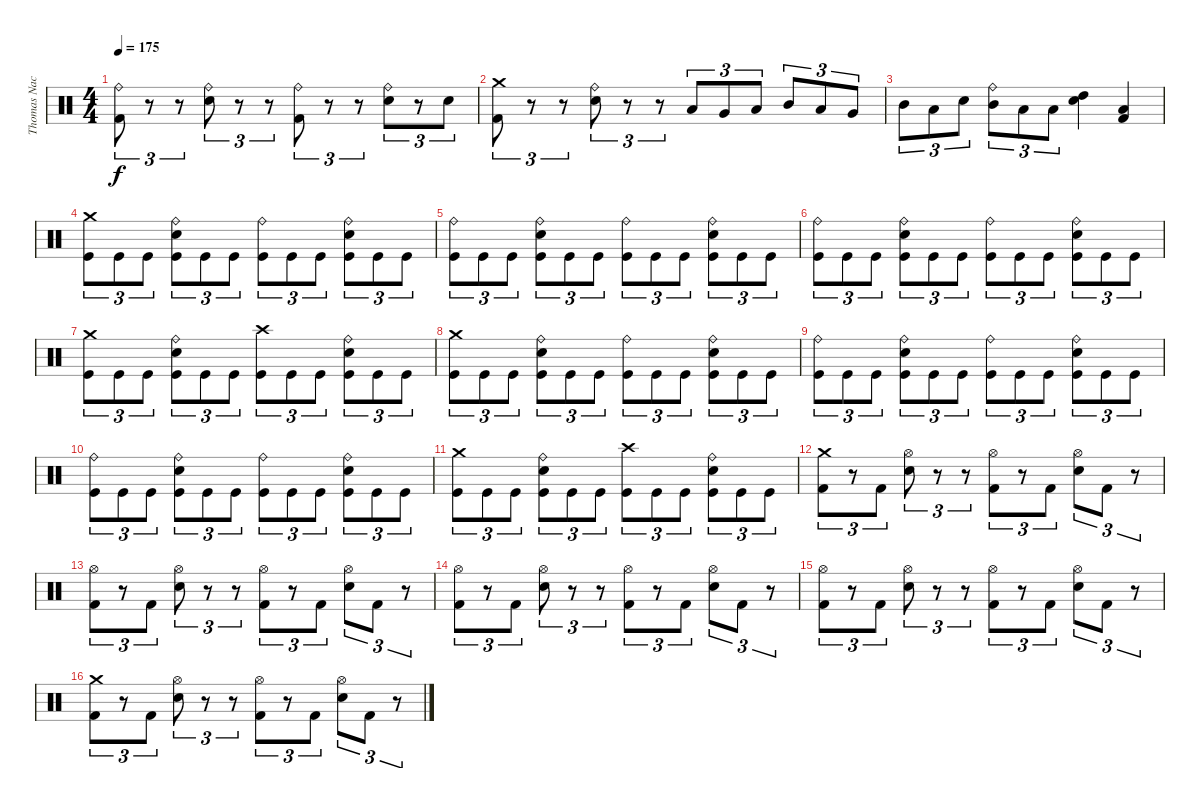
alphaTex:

\track ("Thomas Nack" "Thomas Nac") {instrument percussion}
\staff {score}
\articulation defaults
\ts (4 4)
\tempo 175
\clef neutral
\ks c
("Ride (bell)" "Kick (hit) 2").8{tu (3 2) dy f} r.8{tu (3 2)} r.8{tu (3 2)} ("Ride (bell)" "Electric Snare (hit)").8{tu (3 2)} r.8{tu (3 2)} r.8{tu (3 2)} ("Ride (bell)" "Kick (hit) 2").8{tu (3 2)} r.8{tu (3 2)} r.8{tu (3 2)} ("Ride (bell)" "Electric Snare (hit)").8{tu (3 2)} r.8{tu (3 2)} "Electric Snare (hit)".8{tu (3 2)} |
("Crash medium (hit)" "Kick (hit) 2").8{tu (3 2)} r.8{tu (3 2)} r.8{tu (3 2)} ("Ride (bell)" "Electric Snare (hit)").8{tu (3 2)} r.8{tu (3 2)} r.8{tu (3 2)} "Low Tom (hit)".8{tu (3 2)} "Very Low Tom (hit)".8{tu (3 2)} "Low Floor Tom (hit)".8{tu (3 2)} "Mid Tom (hit)".8{tu (3 2)} "Low Tom (hit)".8{tu (3 2)} "Very Low Tom (hit)".8{tu (3 2)} |
"Mid Tom (hit)".8{tu (3 2)} "Low Tom (hit)".8{tu (3 2)} "Electric Snare (hit)".8{tu (3 2)} ("Ride (bell)" "Mid Tom (hit)").8{tu (3 2)} "Low Tom (hit)".8{tu (3 2)} "Low Tom (hit)".8{tu (3 2)} ("Electric Snare (hit)" "High Tom (hit)").4 ("Low Tom (hit)" "Kick (hit) 2").4 |
("Crash medium (hit)" "Kick (hit)").8{tu (3 2)} "Kick (hit)".8{tu (3 2)} "Kick (hit)".8{tu (3 2)} ("Ride (bell)" "Electric Snare (hit)" "Kick (hit)").8{tu (3 2)} "Kick (hit)".8{tu (3 2)} "Kick (hit)".8{tu (3 2)} ("Ride (bell)" "Kick (hit)").8{tu (3 2)} "Kick (hit)".8{tu (3 2)} "Kick (hit)".8{tu (3 2)} ("Ride (bell)" "Electric Snare (hit)" "Kick (hit)").8{tu (3 2)} "Kick (hit)".8{tu (3 2)} "Kick (hit)".8{tu (3 2)} |
("Ride (bell)" "Kick (hit)").8{tu (3 2)} "Kick (hit)".8{tu (3 2)} "Kick (hit)".8{tu (3 2)} ("Ride (bell)" "Electric Snare (hit)" "Kick (hit)").8{tu (3 2)} "Kick (hit)".8{tu (3 2)} "Kick (hit)".8{tu (3 2)} ("Ride (bell)" "Kick (hit)").8{tu (3 2)} "Kick (hit)".8{tu (3 2)} "Kick (hit)".8{tu (3 2)} ("Ride (bell)" "Electric Snare (hit)" "Kick (hit)").8{tu (3 2)} "Kick (hit)".8{tu (3 2)} "Kick (hit)".8{tu (3 2)} |
("Ride (bell)" "Kick (hit)").8{tu (3 2)} "Kick (hit)".8{tu (3 2)} "Kick (hit)".8{tu (3 2)} ("Ride (bell)" "Electric Snare (hit)" "Kick (hit)").8{tu (3 2)} "Kick (hit)".8{tu (3 2)} "Kick (hit)".8{tu (3 2)} ("Ride (bell)" "Kick (hit)").8{tu (3 2)} "Kick (hit)".8{tu (3 2)} "Kick (hit)".8{tu (3 2)} ("Ride (bell)" "Electric Snare (hit)" "Kick (hit)").8{tu (3 2)} "Kick (hit)".8{tu (3 2)} "Kick (hit)".8{tu (3 2)} |
("Crash medium (hit)" "Kick (hit)").8{tu (3 2)} "Kick (hit)".8{tu (3 2)} "Kick (hit)".8{tu (3 2)} ("Ride (bell)" "Electric Snare (hit)" "Kick (hit)").8{tu (3 2)} "Kick (hit)".8{tu (3 2)} "Kick (hit)".8{tu (3 2)} ("Crash high (hit)" "Kick (hit)").8{tu (3 2)} "Kick (hit)".8{tu (3 2)} "Kick (hit)".8{tu (3 2)} ("Ride (bell)" "Electric Snare (hit)" "Kick (hit)").8{tu (3 2)} "Kick (hit)".8{tu (3 2)} "Kick (hit)".8{tu (3 2)} |
("Crash medium (hit)" "Kick (hit)").8{tu (3 2)} "Kick (hit)".8{tu (3 2)} "Kick (hit)".8{tu (3 2)} ("Ride (bell)" "Electric Snare (hit)" "Kick (hit)").8{tu (3 2)} "Kick (hit)".8{tu (3 2)} "Kick (hit)".8{tu (3 2)} ("Ride (bell)" "Kick (hit)").8{tu (3 2)} "Kick (hit)".8{tu (3 2)} "Kick (hit)".8{tu (3 2)} ("Ride (bell)" "Electric Snare (hit)" "Kick (hit)").8{tu (3 2)} "Kick (hit)".8{tu (3 2)} "Kick (hit)".8{tu (3 2)} |
("Ride (bell)" "Kick (hit)").8{tu (3 2)} "Kick (hit)".8{tu (3 2)} "Kick (hit)".8{tu (3 2)} ("Ride (bell)" "Electric Snare (hit)" "Kick (hit)").8{tu (3 2)} "Kick (hit)".8{tu (3 2)} "Kick (hit)".8{tu (3 2)} ("Ride (bell)" "Kick (hit)").8{tu (3 2)} "Kick (hit)".8{tu (3 2)} "Kick (hit)".8{tu (3 2)} ("Ride (bell)" "Electric Snare (hit)" "Kick (hit)").8{tu (3 2)} "Kick (hit)".8{tu (3 2)} "Kick (hit)".8{tu (3 2)} |
("Ride (bell)" "Kick (hit)").8{tu (3 2)} "Kick (hit)".8{tu (3 2)} "Kick (hit)".8{tu (3 2)} ("Ride (bell)" "Electric Snare (hit)" "Kick (hit)").8{tu (3 2)} "Kick (hit)".8{tu (3 2)} "Kick (hit)".8{tu (3 2)} ("Ride (bell)" "Kick (hit)").8{tu (3 2)} "Kick (hit)".8{tu (3 2)} "Kick (hit)".8{tu (3 2)} ("Ride (bell)" "Electric Snare (hit)" "Kick (hit)").8{tu (3 2)} "Kick (hit)".8{tu (3 2)} "Kick (hit)".8{tu (3 2)} |
("Crash medium (hit)" "Kick (hit)").8{tu (3 2)} "Kick (hit)".8{tu (3 2)} "Kick (hit)".8{tu (3 2)} ("Ride (bell)" "Electric Snare (hit)" "Kick (hit)").8{tu (3 2)} "Kick (hit)".8{tu (3 2)} "Kick (hit)".8{tu (3 2)} ("Crash high (hit)" "Kick (hit)").8{tu (3 2)} "Kick (hit)".8{tu (3 2)} "Kick (hit)".8{tu (3 2)} ("Ride (bell)" "Electric Snare (hit)" "Kick (hit)").8{tu (3 2)} "Kick (hit)".8{tu (3 2)} "Kick (hit)".8{tu (3 2)} |
("Crash medium (hit)" "Kick (hit) 2").8{tu (3 2)} r.8{tu (3 2)} "Kick (hit) 2".8{tu (3 2)} ("Hi-Hat (open)" "Electric Snare (hit)").8{tu (3 2)} r.8{tu (3 2)} r.8{tu (3 2)} ("Hi-Hat (open)" "Kick (hit) 2").8{tu (3 2)} r.8{tu (3 2)} "Kick (hit) 2".8{tu (3 2)} ("Hi-Hat (open)" "Electric Snare (hit)").8{tu (3 2)} "Kick (hit) 2".8{tu (3 2)} r.8{tu (3 2)} |
("Hi-Hat (open)" "Kick (hit) 2").8{tu (3 2)} r.8{tu (3 2)} "Kick (hit) 2".8{tu (3 2)} ("Hi-Hat (open)" "Electric Snare (hit)").8{tu (3 2)} r.8{tu (3 2)} r.8{tu (3 2)} ("Hi-Hat (open)" "Kick (hit) 2").8{tu (3 2)} r.8{tu (3 2)} "Kick (hit) 2".8{tu (3 2)} ("Hi-Hat (open)" "Electric Snare (hit)").8{tu (3 2)} "Kick (hit) 2".8{tu (3 2)} r.8{tu (3 2)} |
("Hi-Hat (open)" "Kick (hit) 2").8{tu (3 2)} r.8{tu (3 2)} "Kick (hit) 2".8{tu (3 2)} ("Hi-Hat (open)" "Electric Snare (hit)").8{tu (3 2)} r.8{tu (3 2)} r.8{tu (3 2)} ("Hi-Hat (open)" "Kick (hit) 2").8{tu (3 2)} r.8{tu (3 2)} "Kick (hit) 2".8{tu (3 2)} ("Hi-Hat (open)" "Electric Snare (hit)").8{tu (3 2)} "Kick (hit) 2".8{tu (3 2)} r.8{tu (3 2)} |
("Hi-Hat (open)" "Kick (hit) 2").8{tu (3 2)} r.8{tu (3 2)} "Kick (hit) 2".8{tu (3 2)} ("Hi-Hat (open)" "Electric Snare (hit)").8{tu (3 2)} r.8{tu (3 2)} r.8{tu (3 2)} ("Hi-Hat (open)" "Kick (hit) 2").8{tu (3 2)} r.8{tu (3 2)} "Kick (hit) 2".8{tu (3 2)} ("Hi-Hat (open)" "Electric Snare (hit)").8{tu (3 2)} "Kick (hit) 2".8{tu (3 2)} r.8{tu (3 2)} |
("Crash medium (hit)" "Kick (hit) 2").8{tu (3 2)} r.8{tu (3 2)} "Kick (hit) 2".8{tu (3 2)} ("Hi-Hat (open)" "Electric Snare (hit)").8{tu (3 2)} r.8{tu (3 2)} r.8{tu (3 2)} ("Hi-Hat (open)" "Kick (hit) 2").8{tu (3 2)} r.8{tu (3 2)} "Kick (hit) 2".8{tu (3 2)} ("Hi-Hat (open)" "Electric Snare (hit)").8{tu (3 2)} "Kick (hit) 2".8{tu (3 2)} r.8{tu (3 2)}
